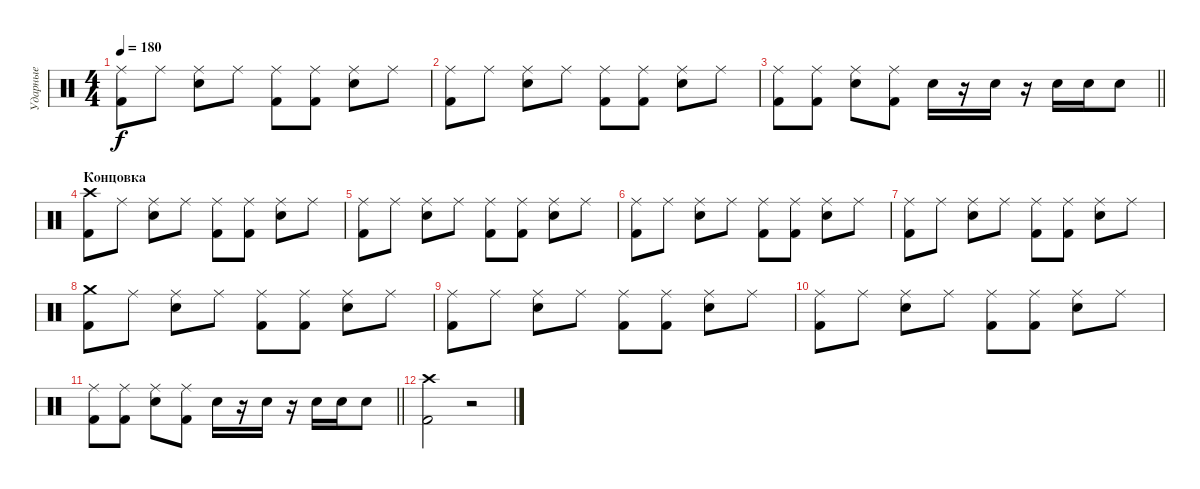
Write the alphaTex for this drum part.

\track ("Ударные" "Ударные") {instrument percussion}
\staff {score}
\articulation defaults
\ts (4 4)
\tempo 180
\clef neutral
\ks c
("Ride (middle)" "Kick (hit) 2").8{dy f} "Ride (middle)".8 ("Ride (middle)" "Electric Snare (hit)").8 "Ride (middle)".8 ("Ride (middle)" "Kick (hit) 2").8 ("Ride (middle)" "Kick (hit) 2").8 ("Ride (middle)" "Electric Snare (hit)").8 "Ride (middle)".8 |
("Ride (middle)" "Kick (hit) 2").8 "Ride (middle)".8 ("Ride (middle)" "Electric Snare (hit)").8 "Ride (middle)".8 ("Ride (middle)" "Kick (hit) 2").8 ("Ride (middle)" "Kick (hit) 2").8 ("Ride (middle)" "Electric Snare (hit)").8 "Ride (middle)".8 |
\barLineRight lightlight
("Ride (middle)" "Kick (hit) 2").8 ("Ride (middle)" "Kick (hit) 2").8 ("Ride (middle)" "Electric Snare (hit)").8 ("Ride (middle)" "Kick (hit) 2").8 "Electric Snare (hit)".16 r.16 "Electric Snare (hit)".16 r.16 "Electric Snare (hit)".16 "Electric Snare (hit)".16 "Electric Snare (hit)".8 |
\section ("" "Концовка")
("Crash high (hit)" "Kick (hit) 2").8 "Ride (middle)".8 ("Ride (middle)" "Electric Snare (hit)").8 "Ride (middle)".8 ("Ride (middle)" "Kick (hit) 2").8 ("Ride (middle)" "Kick (hit) 2").8 ("Ride (middle)" "Electric Snare (hit)").8 "Ride (middle)".8 |
("Ride (middle)" "Kick (hit) 2").8 "Ride (middle)".8 ("Ride (middle)" "Electric Snare (hit)").8 "Ride (middle)".8 ("Ride (middle)" "Kick (hit) 2").8 ("Ride (middle)" "Kick (hit) 2").8 ("Ride (middle)" "Electric Snare (hit)").8 "Ride (middle)".8 |
("Ride (middle)" "Kick (hit) 2").8 "Ride (middle)".8 ("Ride (middle)" "Electric Snare (hit)").8 "Ride (middle)".8 ("Ride (middle)" "Kick (hit) 2").8 ("Ride (middle)" "Kick (hit) 2").8 ("Ride (middle)" "Electric Snare (hit)").8 "Ride (middle)".8 |
("Ride (middle)" "Kick (hit) 2").8 "Ride (middle)".8 ("Ride (middle)" "Electric Snare (hit)").8 "Ride (middle)".8 ("Ride (middle)" "Kick (hit) 2").8 ("Ride (middle)" "Kick (hit) 2").8 ("Ride (middle)" "Electric Snare (hit)").8 "Ride (middle)".8 |
("Crash medium (hit)" "Kick (hit) 2").8 "Ride (middle)".8 ("Ride (middle)" "Electric Snare (hit)").8 "Ride (middle)".8 ("Ride (middle)" "Kick (hit) 2").8 ("Ride (middle)" "Kick (hit) 2").8 ("Ride (middle)" "Electric Snare (hit)").8 "Ride (middle)".8 |
("Ride (middle)" "Kick (hit) 2").8 "Ride (middle)".8 ("Ride (middle)" "Electric Snare (hit)").8 "Ride (middle)".8 ("Ride (middle)" "Kick (hit) 2").8 ("Ride (middle)" "Kick (hit) 2").8 ("Ride (middle)" "Electric Snare (hit)").8 "Ride (middle)".8 |
("Ride (middle)" "Kick (hit) 2").8 "Ride (middle)".8 ("Ride (middle)" "Electric Snare (hit)").8 "Ride (middle)".8 ("Ride (middle)" "Kick (hit) 2").8 ("Ride (middle)" "Kick (hit) 2").8 ("Ride (middle)" "Electric Snare (hit)").8 "Ride (middle)".8 |
\barLineRight lightlight
("Ride (middle)" "Kick (hit) 2").8 ("Ride (middle)" "Kick (hit) 2").8 ("Ride (middle)" "Electric Snare (hit)").8 ("Ride (middle)" "Kick (hit) 2").8 "Electric Snare (hit)".16 r.16 "Electric Snare (hit)".16 r.16 "Electric Snare (hit)".16 "Electric Snare (hit)".16 "Electric Snare (hit)".8 |
("Crash high (hit)" "Kick (hit) 2").2 r.2
